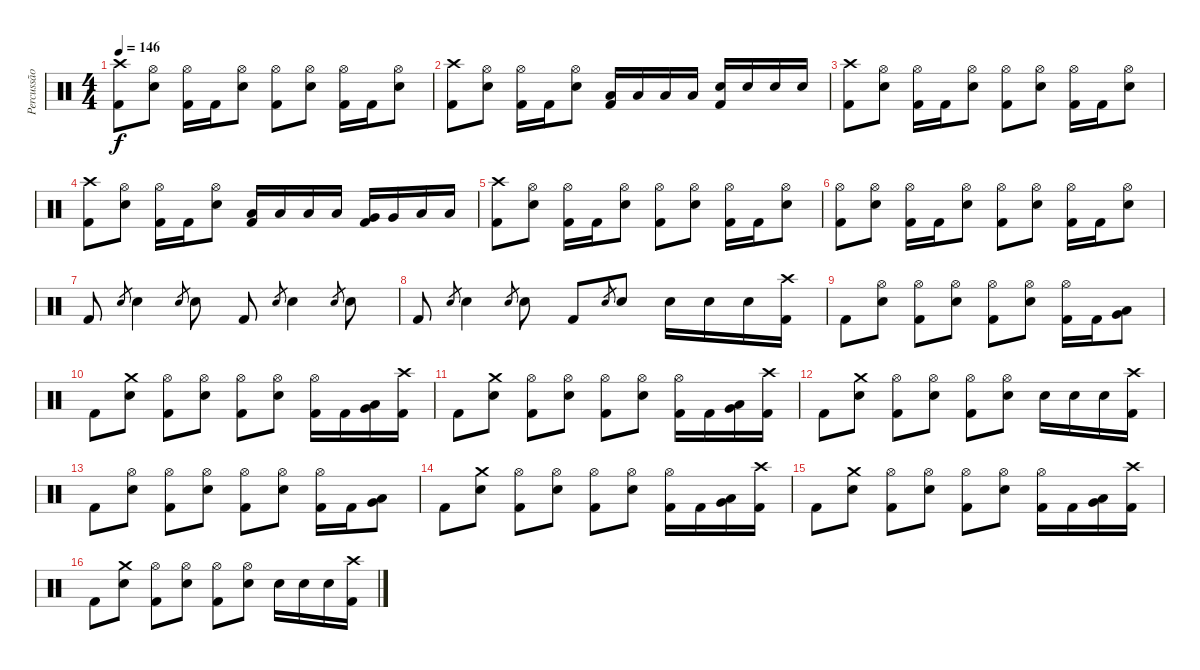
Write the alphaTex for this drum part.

\track ("Percussão" "Percussão") {instrument percussion}
\staff {score}
\articulation defaults
\ts (4 4)
\tempo 146
\clef neutral
\ks c
("Crash high (hit)" "Kick (hit) 2").8{dy f} ("Hi-Hat (open)" "Snare (hit) 2").8 ("Hi-Hat (open)" "Kick (hit) 2").16 "Kick (hit) 2".16 ("Hi-Hat (open)" "Snare (hit) 2").8 ("Hi-Hat (open)" "Kick (hit) 2").8 ("Hi-Hat (open)" "Snare (hit) 2").8 ("Hi-Hat (open)" "Kick (hit) 2").16 "Kick (hit) 2".16 ("Hi-Hat (open)" "Snare (hit) 2").8 |
("Crash high (hit)" "Kick (hit) 2").8 ("Hi-Hat (open)" "Snare (hit) 2").8 ("Hi-Hat (open)" "Kick (hit) 2").16 "Kick (hit) 2".16 ("Hi-Hat (open)" "Snare (hit) 2").8 ("Low Floor Tom (hit)" "Kick (hit) 2").16 "Low Floor Tom (hit)".16 "Low Floor Tom (hit)".16 "Low Floor Tom (hit)".16 ("Snare (hit) 2" "Kick (hit) 2").16 "Snare (hit) 2".16 "Snare (hit) 2".16 "Snare (hit) 2".16 |
("Crash high (hit)" "Kick (hit) 2").8 ("Hi-Hat (open)" "Snare (hit) 2").8 ("Hi-Hat (open)" "Kick (hit) 2").16 "Kick (hit) 2".16 ("Hi-Hat (open)" "Snare (hit) 2").8 ("Hi-Hat (open)" "Kick (hit) 2").8 ("Hi-Hat (open)" "Snare (hit) 2").8 ("Hi-Hat (open)" "Kick (hit) 2").16 "Kick (hit) 2".16 ("Hi-Hat (open)" "Snare (hit) 2").8 |
("Crash high (hit)" "Kick (hit) 2").8 ("Hi-Hat (open)" "Snare (hit) 2").8 ("Hi-Hat (open)" "Kick (hit) 2").16 "Kick (hit) 2".16 ("Hi-Hat (open)" "Snare (hit) 2").8 ("Low Tom (hit)" "Kick (hit) 2").16 "Low Tom (hit)".16 "Low Tom (hit)".16 "Low Tom (hit)".16 ("Very Low Tom (hit)" "Kick (hit) 2").16 "Very Low Tom (hit)".16 "Low Floor Tom (hit)".16 "Low Floor Tom (hit)".16 |
("Crash high (hit)" "Kick (hit) 2").8 ("Hi-Hat (open)" "Snare (hit) 2").8 ("Hi-Hat (open)" "Kick (hit) 2").16 "Kick (hit) 2".16 ("Hi-Hat (open)" "Snare (hit) 2").8 ("Hi-Hat (open)" "Kick (hit) 2").8 ("Hi-Hat (open)" "Snare (hit) 2").8 ("Hi-Hat (open)" "Kick (hit) 2").16 "Kick (hit) 2".16 ("Hi-Hat (open)" "Snare (hit) 2").8 |
("Hi-Hat (open)" "Kick (hit) 2").8 ("Hi-Hat (open)" "Snare (hit) 2").8 ("Hi-Hat (open)" "Kick (hit) 2").16 "Kick (hit) 2".16 ("Hi-Hat (open)" "Snare (hit) 2").8 ("Hi-Hat (open)" "Kick (hit) 2").8 ("Hi-Hat (open)" "Snare (hit) 2").8 ("Hi-Hat (open)" "Kick (hit) 2").16 "Kick (hit) 2".16 ("Hi-Hat (open)" "Snare (hit) 2").8 |
"Kick (hit) 2".8 "Snare (hit) 2".8{gr} "Snare (hit) 2".4 "Snare (hit) 2".8{gr} "Snare (hit) 2".8 "Kick (hit) 2".8 "Snare (hit) 2".8{gr} "Snare (hit) 2".4 "Snare (hit) 2".8{gr} "Snare (hit) 2".8 |
"Kick (hit) 2".8 "Snare (hit) 2".8{gr} "Snare (hit) 2".4 "Snare (hit) 2".8{gr} "Snare (hit) 2".8 "Kick (hit) 2".8 "Snare (hit) 2".8{gr} "Snare (hit) 2".8 "Snare (hit) 2".16 "Snare (hit) 2".16 "Snare (hit) 2".16 ("Crash high (hit)" "Kick (hit) 2").16 |
\section ("" "")
"Kick (hit) 2".8 ("Hi-Hat (open)" "Snare (hit) 2").8 ("Hi-Hat (open)" "Kick (hit) 2").8 ("Hi-Hat (open)" "Snare (hit) 2").8 ("Hi-Hat (open)" "Kick (hit) 2").8 ("Hi-Hat (open)" "Snare (hit) 2").8 ("Hi-Hat (open)" "Kick (hit) 2").16 "Kick (hit) 2".16 ("Very Low Tom (hit)" "Low Tom (hit)").8 |
"Kick (hit) 2".8 ("Crash medium (hit)" "Snare (hit) 2").8 ("Hi-Hat (open)" "Kick (hit) 2").8 ("Hi-Hat (open)" "Snare (hit) 2").8 ("Hi-Hat (open)" "Kick (hit) 2").8 ("Hi-Hat (open)" "Snare (hit) 2").8 ("Hi-Hat (open)" "Kick (hit) 2").16 "Kick (hit) 2".16 ("Very Low Tom (hit)" "Low Tom (hit)").16 ("Crash high (hit)" "Kick (hit) 2").16 |
"Kick (hit) 2".8 ("Crash medium (hit)" "Snare (hit) 2").8 ("Hi-Hat (open)" "Kick (hit) 2").8 ("Hi-Hat (open)" "Snare (hit) 2").8 ("Hi-Hat (open)" "Kick (hit) 2").8 ("Hi-Hat (open)" "Snare (hit) 2").8 ("Hi-Hat (open)" "Kick (hit) 2").16 "Kick (hit) 2".16 ("Very Low Tom (hit)" "Low Tom (hit)").16 ("Crash high (hit)" "Kick (hit) 2").16 |
"Kick (hit) 2".8 ("Crash medium (hit)" "Snare (hit) 2").8 ("Hi-Hat (open)" "Kick (hit) 2").8 ("Hi-Hat (open)" "Snare (hit) 2").8 ("Hi-Hat (open)" "Kick (hit) 2").8 ("Hi-Hat (open)" "Snare (hit) 2").8 "Snare (hit) 2".16 "Snare (hit) 2".16 "Snare (hit) 2".16 ("Crash high (hit)" "Kick (hit) 2").16 |
"Kick (hit) 2".8 ("Hi-Hat (open)" "Snare (hit) 2").8 ("Hi-Hat (open)" "Kick (hit) 2").8 ("Hi-Hat (open)" "Snare (hit) 2").8 ("Hi-Hat (open)" "Kick (hit) 2").8 ("Hi-Hat (open)" "Snare (hit) 2").8 ("Hi-Hat (open)" "Kick (hit) 2").16 "Kick (hit) 2".16 ("Very Low Tom (hit)" "Low Tom (hit)").8 |
"Kick (hit) 2".8 ("Crash medium (hit)" "Snare (hit) 2").8 ("Hi-Hat (open)" "Kick (hit) 2").8 ("Hi-Hat (open)" "Snare (hit) 2").8 ("Hi-Hat (open)" "Kick (hit) 2").8 ("Hi-Hat (open)" "Snare (hit) 2").8 ("Hi-Hat (open)" "Kick (hit) 2").16 "Kick (hit) 2".16 ("Very Low Tom (hit)" "Low Tom (hit)").16 ("Crash high (hit)" "Kick (hit) 2").16 |
"Kick (hit) 2".8 ("Crash medium (hit)" "Snare (hit) 2").8 ("Hi-Hat (open)" "Kick (hit) 2").8 ("Hi-Hat (open)" "Snare (hit) 2").8 ("Hi-Hat (open)" "Kick (hit) 2").8 ("Hi-Hat (open)" "Snare (hit) 2").8 ("Hi-Hat (open)" "Kick (hit) 2").16 "Kick (hit) 2".16 ("Very Low Tom (hit)" "Low Tom (hit)").16 ("Crash high (hit)" "Kick (hit) 2").16 |
"Kick (hit) 2".8 ("Crash medium (hit)" "Snare (hit) 2").8 ("Hi-Hat (open)" "Kick (hit) 2").8 ("Hi-Hat (open)" "Snare (hit) 2").8 ("Hi-Hat (open)" "Kick (hit) 2").8 ("Hi-Hat (open)" "Snare (hit) 2").8 "Snare (hit) 2".16 "Snare (hit) 2".16 "Snare (hit) 2".16 ("Crash high (hit)" "Kick (hit) 2").16
